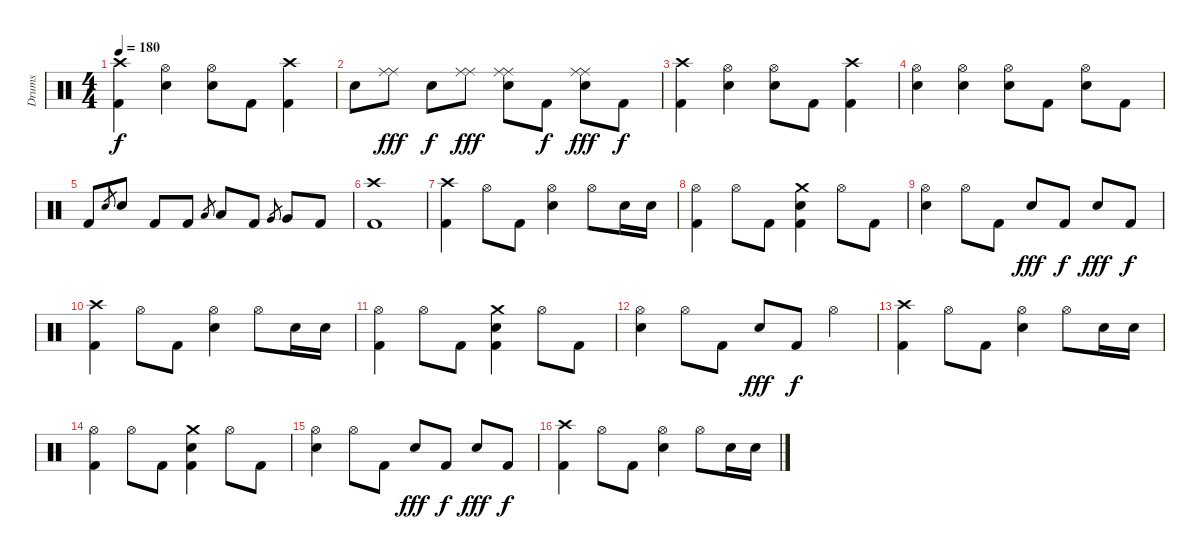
\track ("Drums" "Drums") {instrument percussion}
\staff {score}
\articulation defaults
\ts (4 4)
\tempo 180
\clef neutral
\ks c
("Crash high (hit)" "Kick (hit) 2").4{dy f} ("Hi-Hat (open)" "Electric Snare (hit)").4 ("Hi-Hat (open)" "Electric Snare (hit)").8 "Kick (hit) 2".8 ("Crash high (hit)" "Kick (hit) 2").4 |
"Electric Snare (hit)".8 ("Ride (middle)" "Ride (middle)").8{dy fff} "Electric Snare (hit)".8{dy f} ("Ride (middle)" "Ride (middle)").8{dy fff} ("Ride (middle)" "Ride (middle)" "Electric Snare (hit)").8 "Kick (hit) 2".8{dy f} ("Ride (middle)" "Ride (middle)" "Electric Snare (hit)").8{dy fff} "Kick (hit) 2".8{dy f} |
("Crash high (hit)" "Kick (hit) 2").4 ("Hi-Hat (open)" "Electric Snare (hit)").4 ("Hi-Hat (open)" "Electric Snare (hit)").8 "Kick (hit) 2".8 ("Crash high (hit)" "Kick (hit) 2").4 |
("Hi-Hat (open)" "Electric Snare (hit)").4 ("Hi-Hat (open)" "Electric Snare (hit)").4 ("Hi-Hat (open)" "Electric Snare (hit)").8 "Kick (hit) 2".8 ("Hi-Hat (open)" "Electric Snare (hit)").8 "Kick (hit) 2".8 |
"Kick (hit) 2".8 "Electric Snare (hit)".8{gr} "Electric Snare (hit)".8 "Kick (hit) 2".8 "Kick (hit) 2".8 "Low Tom (hit)".8{gr} "Low Tom (hit)".8 "Kick (hit) 2".8 "Very Low Tom (hit)".8{gr} "Very Low Tom (hit)".8 "Kick (hit) 2".8 |
("Crash high (hit)" "Kick (hit) 2").1 |
("Crash high (hit)" "Kick (hit) 2").4 "Hi-Hat (open)".8 "Kick (hit) 2".8 ("Hi-Hat (open)" "Electric Snare (hit)").4 "Hi-Hat (open)".8 "Electric Snare (hit)".16 "Electric Snare (hit)".16 |
("Hi-Hat (open)" "Kick (hit) 2").4 "Hi-Hat (open)".8 "Kick (hit) 2".8 ("Crash medium (hit)" "Electric Snare (hit)" "Kick (hit) 2").4 "Hi-Hat (open)".8 "Kick (hit) 2".8 |
("Hi-Hat (open)" "Electric Snare (hit)").4 "Hi-Hat (open)".8 "Kick (hit) 2".8 "Electric Snare (hit)".8{dy fff} "Kick (hit) 2".8{dy f} "Electric Snare (hit)".8{dy fff} "Kick (hit) 2".8{dy f} |
("Crash high (hit)" "Kick (hit) 2").4 "Hi-Hat (open)".8 "Kick (hit) 2".8 ("Hi-Hat (open)" "Electric Snare (hit)").4 "Hi-Hat (open)".8 "Electric Snare (hit)".16 "Electric Snare (hit)".16 |
("Hi-Hat (open)" "Kick (hit) 2").4 "Hi-Hat (open)".8 "Kick (hit) 2".8 ("Crash medium (hit)" "Electric Snare (hit)" "Kick (hit) 2").4 "Hi-Hat (open)".8 "Kick (hit) 2".8 |
("Hi-Hat (open)" "Electric Snare (hit)").4 "Hi-Hat (open)".8 "Kick (hit) 2".8 "Electric Snare (hit)".8{dy fff} "Kick (hit) 2".8{dy f} "Hi-Hat (open)".4 |
("Crash high (hit)" "Kick (hit) 2").4 "Hi-Hat (open)".8 "Kick (hit) 2".8 ("Hi-Hat (open)" "Electric Snare (hit)").4 "Hi-Hat (open)".8 "Electric Snare (hit)".16 "Electric Snare (hit)".16 |
("Hi-Hat (open)" "Kick (hit) 2").4 "Hi-Hat (open)".8 "Kick (hit) 2".8 ("Crash medium (hit)" "Electric Snare (hit)" "Kick (hit) 2").4 "Hi-Hat (open)".8 "Kick (hit) 2".8 |
("Hi-Hat (open)" "Electric Snare (hit)").4 "Hi-Hat (open)".8 "Kick (hit) 2".8 "Electric Snare (hit)".8{dy fff} "Kick (hit) 2".8{dy f} "Electric Snare (hit)".8{dy fff} "Kick (hit) 2".8{dy f} |
("Crash high (hit)" "Kick (hit) 2").4 "Hi-Hat (open)".8 "Kick (hit) 2".8 ("Hi-Hat (open)" "Electric Snare (hit)").4 "Hi-Hat (open)".8 "Electric Snare (hit)".16 "Electric Snare (hit)".16
